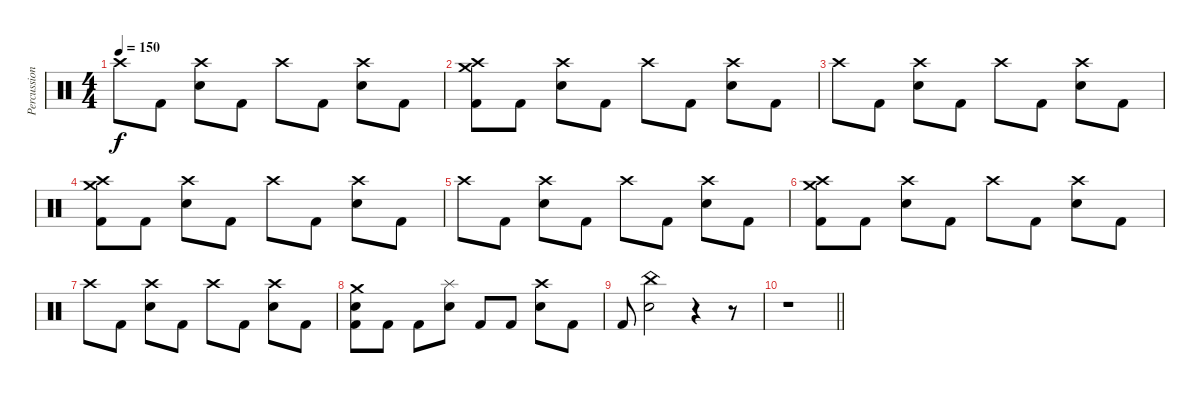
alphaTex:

\track ("Percussion" "Percussion") {instrument percussion}
\staff {score}
\articulation defaults
\ts (4 4)
\tempo 150
\clef neutral
\ks c "Crash high (hit)".8{dy f} "Kick (hit) 2".8
("Crash high (hit)" "Snare (hit) 2").8 "Kick (hit) 2".8 "Crash high (hit)".8 "Kick (hit) 2".8 ("Crash high (hit)" "Snare (hit) 2").8 "Kick (hit) 2".8 |
("Crash high (hit)" "Crash medium (hit)" "Kick (hit) 2").8 "Kick (hit) 2".8 ("Crash high (hit)" "Snare (hit) 2").8 "Kick (hit) 2".8 "Crash high (hit)".8 "Kick (hit) 2".8 ("Crash high (hit)" "Snare (hit) 2").8 "Kick (hit) 2".8 |
"Crash high (hit)".8 "Kick (hit) 2".8 ("Crash high (hit)" "Snare (hit) 2").8 "Kick (hit) 2".8 "Crash high (hit)".8 "Kick (hit) 2".8 ("Crash high (hit)" "Snare (hit) 2").8 "Kick (hit) 2".8 |
("Crash high (hit)" "Crash medium (hit)" "Kick (hit) 2").8 "Kick (hit) 2".8 ("Crash high (hit)" "Snare (hit) 2").8 "Kick (hit) 2".8 "Crash high (hit)".8 "Kick (hit) 2".8 ("Crash high (hit)" "Snare (hit) 2").8 "Kick (hit) 2".8 |
"Crash high (hit)".8 "Kick (hit) 2".8 ("Crash high (hit)" "Snare (hit) 2").8 "Kick (hit) 2".8 "Crash high (hit)".8 "Kick (hit) 2".8 ("Crash high (hit)" "Snare (hit) 2").8 "Kick (hit) 2".8 |
("Crash high (hit)" "Crash medium (hit)" "Kick (hit) 2").8 "Kick (hit) 2".8 ("Crash high (hit)" "Snare (hit) 2").8 "Kick (hit) 2".8 "Crash high (hit)".8 "Kick (hit) 2".8 ("Crash high (hit)" "Snare (hit) 2").8 "Kick (hit) 2".8 |
"Crash high (hit)".8 "Kick (hit) 2".8 ("Crash high (hit)" "Snare (hit) 2").8 "Kick (hit) 2".8 "Crash high (hit)".8 "Kick (hit) 2".8 ("Crash high (hit)" "Snare (hit) 2").8 "Kick (hit) 2".8 |
("Crash medium (hit)" "Snare (hit) 2" "Kick (hit) 2").8 "Kick (hit) 2".8 "Kick (hit) 2".8 ("Splash (hit)" "Snare (hit) 2").8 "Kick (hit) 2".8 "Kick (hit) 2".8 ("Crash high (hit)" "Snare (hit) 2").8 "Kick (hit) 2".8 |
"Kick (hit) 2".8 ("China (hit)" "Snare (hit) 2").2 r.4 r.8 |
\barLineRight lightlight
r.1
